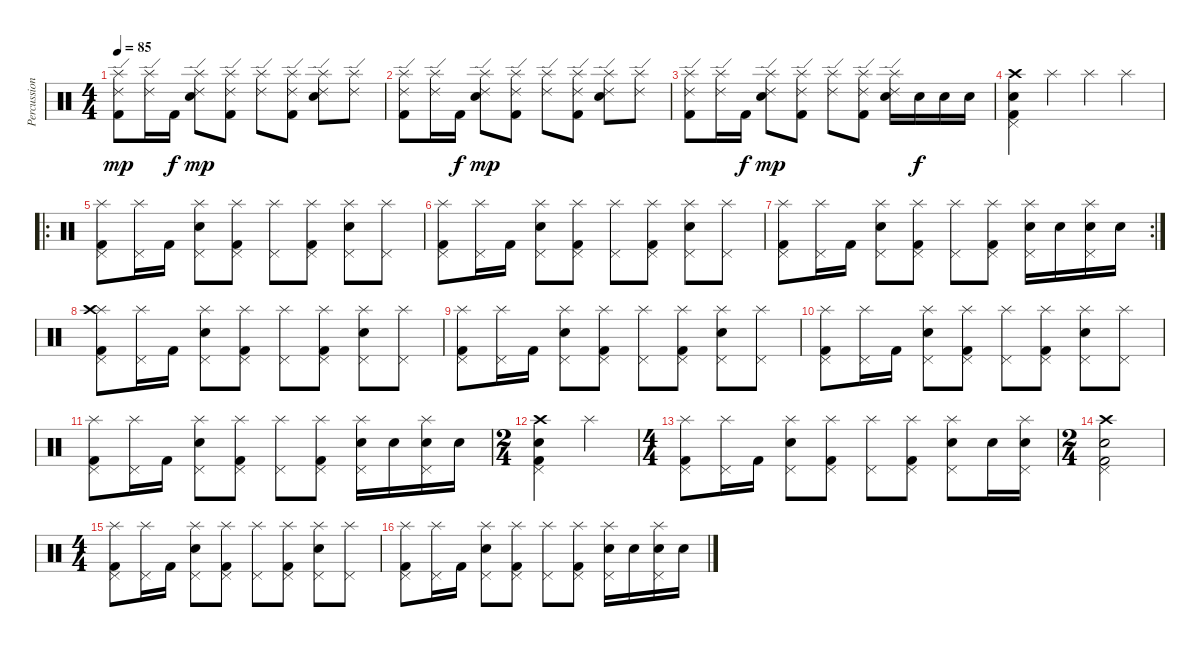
\track ("Percussion" "Percussion") {instrument percussion}
\staff {score}
\articulation defaults
\ts (4 4)
\tempo 85
\clef neutral
\ks c
("Splash (hit)" "Ride (edge) 2" "Kick (hit) 2").8{dy mp} ("Splash (hit)" "Ride (edge) 2").16 "Kick (hit) 2".16{dy f} ("Splash (hit)" "Ride (edge) 2" "Electric Snare (hit)").8{dy mp} ("Splash (hit)" "Ride (edge) 2" "Kick (hit) 2").8 ("Splash (hit)" "Ride (edge) 2").8 ("Splash (hit)" "Ride (edge) 2" "Kick (hit) 2").8 ("Splash (hit)" "Ride (edge) 2" "Electric Snare (hit)").8 ("Splash (hit)" "Ride (edge) 2").8 |
("Splash (hit)" "Ride (edge) 2" "Kick (hit) 2").8 ("Splash (hit)" "Ride (edge) 2").16 "Kick (hit) 2".16{dy f} ("Splash (hit)" "Ride (edge) 2" "Electric Snare (hit)").8{dy mp} ("Splash (hit)" "Ride (edge) 2" "Kick (hit) 2").8 ("Splash (hit)" "Ride (edge) 2").8 ("Splash (hit)" "Ride (edge) 2" "Kick (hit) 2").8 ("Splash (hit)" "Ride (edge) 2" "Electric Snare (hit)").8 ("Splash (hit)" "Ride (edge) 2").8 |
("Splash (hit)" "Ride (edge) 2" "Kick (hit) 2").8 ("Splash (hit)" "Ride (edge) 2").16 "Kick (hit) 2".16{dy f} ("Splash (hit)" "Ride (edge) 2" "Electric Snare (hit)").8{dy mp} ("Splash (hit)" "Ride (edge) 2" "Kick (hit) 2").8 ("Splash (hit)" "Ride (edge) 2").8 ("Splash (hit)" "Ride (edge) 2" "Kick (hit) 2").8 ("Splash (hit)" "Ride (edge) 2" "Electric Snare (hit)").16 "Electric Snare (hit)".16{dy f} "Electric Snare (hit)".16 "Electric Snare (hit)".16 |
("Pedal Hi-Hat (hit)" "Crash high (hit)" "Electric Snare (hit)" "Kick (hit) 2").4 "Splash (hit)".4 "Splash (hit)".4 "Splash (hit)".4 |
\ro
("Pedal Hi-Hat (hit)" "Splash (hit)" "Kick (hit) 2").8 ("Pedal Hi-Hat (hit)" "Splash (hit)").16 "Kick (hit) 2".16 ("Pedal Hi-Hat (hit)" "Splash (hit)" "Electric Snare (hit)").8 ("Pedal Hi-Hat (hit)" "Splash (hit)" "Kick (hit) 2").8 ("Pedal Hi-Hat (hit)" "Splash (hit)").8 ("Pedal Hi-Hat (hit)" "Splash (hit)" "Kick (hit) 2").8 ("Pedal Hi-Hat (hit)" "Splash (hit)" "Electric Snare (hit)").8 ("Pedal Hi-Hat (hit)" "Splash (hit)").8 |
("Pedal Hi-Hat (hit)" "Splash (hit)" "Kick (hit) 2").8 ("Pedal Hi-Hat (hit)" "Splash (hit)").16 "Kick (hit) 2".16 ("Pedal Hi-Hat (hit)" "Splash (hit)" "Electric Snare (hit)").8 ("Pedal Hi-Hat (hit)" "Splash (hit)" "Kick (hit) 2").8 ("Pedal Hi-Hat (hit)" "Splash (hit)").8 ("Pedal Hi-Hat (hit)" "Splash (hit)" "Kick (hit) 2").8 ("Pedal Hi-Hat (hit)" "Splash (hit)" "Electric Snare (hit)").8 ("Pedal Hi-Hat (hit)" "Splash (hit)").8 |
\rc 2
("Pedal Hi-Hat (hit)" "Splash (hit)" "Kick (hit) 2").8 ("Pedal Hi-Hat (hit)" "Splash (hit)").16 "Kick (hit) 2".16 ("Pedal Hi-Hat (hit)" "Splash (hit)" "Electric Snare (hit)").8 ("Pedal Hi-Hat (hit)" "Splash (hit)" "Kick (hit) 2").8 ("Pedal Hi-Hat (hit)" "Splash (hit)").8 ("Pedal Hi-Hat (hit)" "Splash (hit)" "Kick (hit) 2").8 ("Pedal Hi-Hat (hit)" "Splash (hit)" "Electric Snare (hit)").16 "Electric Snare (hit)".16 ("Pedal Hi-Hat (hit)" "Splash (hit)" "Electric Snare (hit)").16 "Electric Snare (hit)".16 |
("Pedal Hi-Hat (hit)" "Splash (hit)" "Crash high (hit)" "Kick (hit) 2").8 ("Pedal Hi-Hat (hit)" "Splash (hit)").16 "Kick (hit) 2".16 ("Pedal Hi-Hat (hit)" "Splash (hit)" "Electric Snare (hit)").8 ("Pedal Hi-Hat (hit)" "Splash (hit)" "Kick (hit) 2").8 ("Pedal Hi-Hat (hit)" "Splash (hit)").8 ("Pedal Hi-Hat (hit)" "Splash (hit)" "Kick (hit) 2").8 ("Pedal Hi-Hat (hit)" "Splash (hit)" "Electric Snare (hit)").8 ("Pedal Hi-Hat (hit)" "Splash (hit)").8 |
("Pedal Hi-Hat (hit)" "Splash (hit)" "Kick (hit) 2").8 ("Pedal Hi-Hat (hit)" "Splash (hit)").16 "Kick (hit) 2".16 ("Pedal Hi-Hat (hit)" "Splash (hit)" "Electric Snare (hit)").8 ("Pedal Hi-Hat (hit)" "Splash (hit)" "Kick (hit) 2").8 ("Pedal Hi-Hat (hit)" "Splash (hit)").8 ("Pedal Hi-Hat (hit)" "Splash (hit)" "Kick (hit) 2").8 ("Pedal Hi-Hat (hit)" "Splash (hit)" "Electric Snare (hit)").8 ("Pedal Hi-Hat (hit)" "Splash (hit)").8 |
("Pedal Hi-Hat (hit)" "Splash (hit)" "Kick (hit) 2").8 ("Pedal Hi-Hat (hit)" "Splash (hit)").16 "Kick (hit) 2".16 ("Pedal Hi-Hat (hit)" "Splash (hit)" "Electric Snare (hit)").8 ("Pedal Hi-Hat (hit)" "Splash (hit)" "Kick (hit) 2").8 ("Pedal Hi-Hat (hit)" "Splash (hit)").8 ("Pedal Hi-Hat (hit)" "Splash (hit)" "Kick (hit) 2").8 ("Pedal Hi-Hat (hit)" "Splash (hit)" "Electric Snare (hit)").8 ("Pedal Hi-Hat (hit)" "Splash (hit)").8 |
("Pedal Hi-Hat (hit)" "Splash (hit)" "Kick (hit) 2").8 ("Pedal Hi-Hat (hit)" "Splash (hit)").16 "Kick (hit) 2".16 ("Pedal Hi-Hat (hit)" "Splash (hit)" "Electric Snare (hit)").8 ("Pedal Hi-Hat (hit)" "Splash (hit)" "Kick (hit) 2").8 ("Pedal Hi-Hat (hit)" "Splash (hit)").8 ("Pedal Hi-Hat (hit)" "Splash (hit)" "Kick (hit) 2").8 ("Pedal Hi-Hat (hit)" "Splash (hit)" "Electric Snare (hit)").16 "Electric Snare (hit)".16 ("Pedal Hi-Hat (hit)" "Splash (hit)" "Electric Snare (hit)").16 "Electric Snare (hit)".16 |
\ts (2 4)
("Pedal Hi-Hat (hit)" "Crash high (hit)" "Electric Snare (hit)" "Kick (hit) 2").4 "Splash (hit)".4 |
\ts (4 4)
("Pedal Hi-Hat (hit)" "Splash (hit)" "Kick (hit) 2").8 ("Pedal Hi-Hat (hit)" "Splash (hit)").16 "Kick (hit) 2".16 ("Pedal Hi-Hat (hit)" "Splash (hit)" "Electric Snare (hit)").8 ("Pedal Hi-Hat (hit)" "Splash (hit)" "Kick (hit) 2").8 ("Pedal Hi-Hat (hit)" "Splash (hit)").8 ("Pedal Hi-Hat (hit)" "Splash (hit)" "Kick (hit) 2").8 ("Pedal Hi-Hat (hit)" "Splash (hit)" "Electric Snare (hit)").8 "Electric Snare (hit)".16 ("Pedal Hi-Hat (hit)" "Splash (hit)" "Electric Snare (hit)").16 |
\ts (2 4)
("Pedal Hi-Hat (hit)" "Crash high (hit)" "Electric Snare (hit)" "Kick (hit) 2").2 |
\ts (4 4)
("Pedal Hi-Hat (hit)" "Splash (hit)" "Kick (hit) 2").8 ("Pedal Hi-Hat (hit)" "Splash (hit)").16 "Kick (hit) 2".16 ("Pedal Hi-Hat (hit)" "Splash (hit)" "Electric Snare (hit)").8 ("Pedal Hi-Hat (hit)" "Splash (hit)" "Kick (hit) 2").8 ("Pedal Hi-Hat (hit)" "Splash (hit)").8 ("Pedal Hi-Hat (hit)" "Splash (hit)" "Kick (hit) 2").8 ("Pedal Hi-Hat (hit)" "Splash (hit)" "Electric Snare (hit)").8 ("Pedal Hi-Hat (hit)" "Splash (hit)").8 |
("Pedal Hi-Hat (hit)" "Splash (hit)" "Kick (hit) 2").8 ("Pedal Hi-Hat (hit)" "Splash (hit)").16 "Kick (hit) 2".16 ("Pedal Hi-Hat (hit)" "Splash (hit)" "Electric Snare (hit)").8 ("Pedal Hi-Hat (hit)" "Splash (hit)" "Kick (hit) 2").8 ("Pedal Hi-Hat (hit)" "Splash (hit)").8 ("Pedal Hi-Hat (hit)" "Splash (hit)" "Kick (hit) 2").8 ("Pedal Hi-Hat (hit)" "Splash (hit)" "Electric Snare (hit)").16 "Electric Snare (hit)".16 ("Pedal Hi-Hat (hit)" "Splash (hit)" "Electric Snare (hit)").16 "Electric Snare (hit)".16
